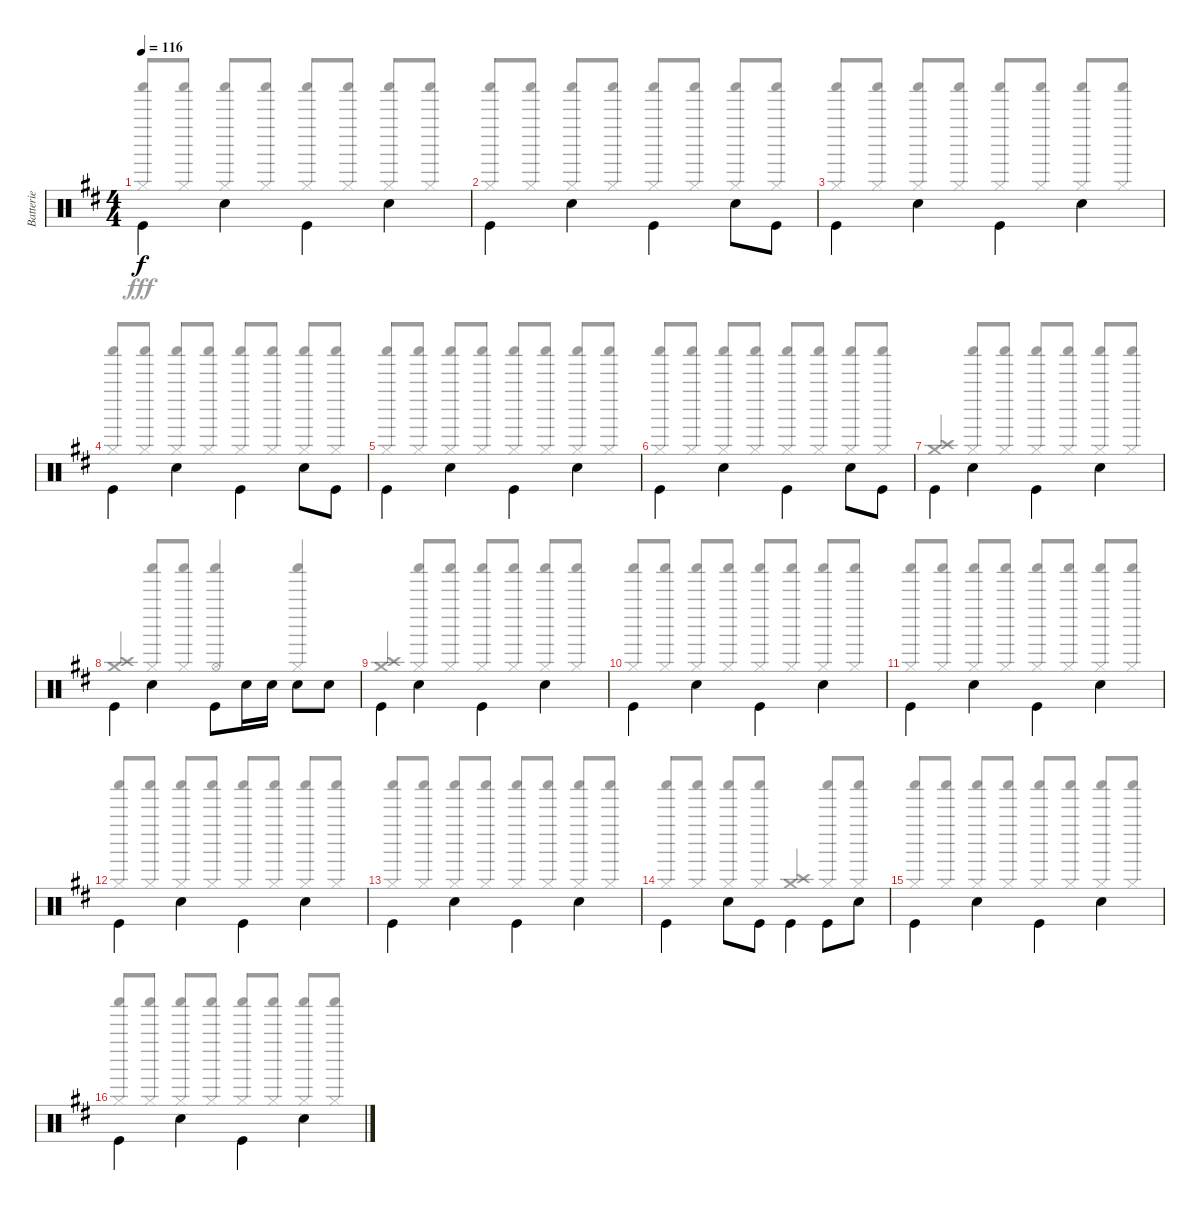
\track ("Batterie" "Batterie") {instrument percussion}
\staff {score}
\articulation defaults
\voice
\ts (4 4)
\tempo 116
\clef neutral
\ks d "Kick (hit)".4{dy f beam Down} "Snare (hit) 2".4{beam Down} "Kick (hit)".4{beam Down} "Snare (hit) 2".4{beam Down}
|
"Kick (hit)".4{beam Down} "Snare (hit) 2".4{beam Down} "Kick (hit)".4{beam Down} "Snare (hit) 2".8{beam Down} "Kick (hit)".8{beam Down} |
"Kick (hit)".4{beam Down} "Snare (hit) 2".4{beam Down} "Kick (hit)".4{beam Down} "Snare (hit) 2".4{beam Down} |
"Kick (hit)".4{beam Down} "Snare (hit) 2".4{beam Down} "Kick (hit)".4{beam Down} "Snare (hit) 2".8{beam Down} "Kick (hit)".8{beam Down} |
"Kick (hit)".4{beam Down} "Snare (hit) 2".4{beam Down} "Kick (hit)".4{beam Down} "Snare (hit) 2".4{beam Down} |
"Kick (hit)".4{beam Down} "Snare (hit) 2".4{beam Down} "Kick (hit)".4{beam Down} "Snare (hit) 2".8{beam Down} "Kick (hit)".8{beam Down} |
"Kick (hit)".4{beam Down} "Snare (hit) 2".4{beam Down} "Kick (hit)".4{beam Down} "Snare (hit) 2".4{beam Down} |
"Kick (hit)".4{beam Down} "Snare (hit) 2".4{beam Down} "Kick (hit)".8{beam Down} "Electric Snare (hit)".16{beam Down} "Electric Snare (hit)".16{beam Down} "Electric Snare (hit)".8{beam Down} "Snare (hit) 2".8{beam Down} |
"Kick (hit)".4{beam Down} "Snare (hit) 2".4{beam Down} "Kick (hit)".4{beam Down} "Snare (hit) 2".4{beam Down} |
"Kick (hit)".4{beam Down} "Snare (hit) 2".4{beam Down} "Kick (hit)".4{beam Down} "Snare (hit) 2".4{beam Down} |
"Kick (hit)".4{beam Down} "Snare (hit) 2".4{beam Down} "Kick (hit)".4{beam Down} "Snare (hit) 2".4{beam Down} |
"Kick (hit)".4{beam Down} "Snare (hit) 2".4{beam Down} "Kick (hit)".4{beam Down} "Snare (hit) 2".4{beam Down} |
"Kick (hit)".4{beam Down} "Snare (hit) 2".4{beam Down} "Kick (hit)".4{beam Down} "Snare (hit) 2".4{beam Down} |
"Kick (hit)".4{beam Down} "Snare (hit) 2".8{beam Down} "Kick (hit)".8{beam Down} "Kick (hit)".4{beam Down} "Kick (hit)".8{beam Down} "Snare (hit) 2".8{beam Down} |
"Kick (hit)".4{beam Down} "Snare (hit) 2".4{beam Down} "Kick (hit)".4{beam Down} "Snare (hit) 2".4{beam Down} |
"Kick (hit)".4{beam Down} "Snare (hit) 2".4{beam Down} "Kick (hit)".4{beam Down} "Snare (hit) 2".4{beam Down}
\voice
\clef neutral
\ottava regular
\simile none
\ks d
("Shaker (hit)" "Hi-Hat (closed)").8{dy fff beam Up} ("Shaker (hit)" "Hi-Hat (closed)").8{beam Up} ("Shaker (hit)" "Hi-Hat (closed)").8{beam Up} ("Shaker (hit)" "Hi-Hat (closed)").8{beam Up} ("Shaker (hit)" "Hi-Hat (closed)").8{beam Up} ("Shaker (hit)" "Hi-Hat (closed)").8{beam Up} ("Shaker (hit)" "Hi-Hat (closed)").8{beam Up} ("Shaker (hit)" "Hi-Hat (closed)").8{beam Up} |
("Shaker (hit)" "Hi-Hat (closed)").8{beam Up} ("Shaker (hit)" "Hi-Hat (closed)").8{beam Up} ("Shaker (hit)" "Hi-Hat (closed)").8{beam Up} ("Shaker (hit)" "Hi-Hat (closed)").8{beam Up} ("Shaker (hit)" "Hi-Hat (closed)").8{beam Up} ("Shaker (hit)" "Hi-Hat (closed)").8{beam Up} ("Shaker (hit)" "Hi-Hat (closed)").8{beam Up} ("Shaker (hit)" "Hi-Hat (closed)").8{beam Up} |
("Shaker (hit)" "Hi-Hat (closed)").8{beam Up} ("Shaker (hit)" "Hi-Hat (closed)").8{beam Up} ("Shaker (hit)" "Hi-Hat (closed)").8{beam Up} ("Shaker (hit)" "Hi-Hat (closed)").8{beam Up} ("Shaker (hit)" "Hi-Hat (closed)").8{beam Up} ("Shaker (hit)" "Hi-Hat (closed)").8{beam Up} ("Shaker (hit)" "Hi-Hat (closed)").8{beam Up} ("Shaker (hit)" "Hi-Hat (closed)").8{beam Up} |
("Shaker (hit)" "Hi-Hat (closed)").8{beam Up} ("Shaker (hit)" "Hi-Hat (closed)").8{beam Up} ("Shaker (hit)" "Hi-Hat (closed)").8{beam Up} ("Shaker (hit)" "Hi-Hat (closed)").8{beam Up} ("Shaker (hit)" "Hi-Hat (closed)").8{beam Up} ("Shaker (hit)" "Hi-Hat (closed)").8{beam Up} ("Shaker (hit)" "Hi-Hat (closed)").8{beam Up} ("Shaker (hit)" "Hi-Hat (closed)").8{beam Up} |
("Shaker (hit)" "Hi-Hat (closed)").8{beam Up} ("Shaker (hit)" "Hi-Hat (closed)").8{beam Up} ("Shaker (hit)" "Hi-Hat (closed)").8{beam Up} ("Shaker (hit)" "Hi-Hat (closed)").8{beam Up} ("Shaker (hit)" "Hi-Hat (closed)").8{beam Up} ("Shaker (hit)" "Hi-Hat (closed)").8{beam Up} ("Shaker (hit)" "Hi-Hat (closed)").8{beam Up} ("Shaker (hit)" "Hi-Hat (closed)").8{beam Up} |
("Shaker (hit)" "Hi-Hat (closed)").8{beam Up} ("Shaker (hit)" "Hi-Hat (closed)").8{beam Up} ("Shaker (hit)" "Hi-Hat (closed)").8{beam Up} ("Shaker (hit)" "Hi-Hat (closed)").8{beam Up} ("Shaker (hit)" "Hi-Hat (closed)").8{beam Up} ("Shaker (hit)" "Hi-Hat (closed)").8{beam Up} ("Shaker (hit)" "Hi-Hat (closed)").8{beam Up} ("Shaker (hit)" "Hi-Hat (closed)").8{beam Up} |
("Crash medium (hit)" "Crash high (hit)").4{beam Up} ("Shaker (hit)" "Hi-Hat (closed)").8{beam Up} ("Shaker (hit)" "Hi-Hat (closed)").8{beam Up} ("Shaker (hit)" "Hi-Hat (closed)").8{beam Up} ("Shaker (hit)" "Hi-Hat (closed)").8{beam Up} ("Shaker (hit)" "Hi-Hat (closed)").8{beam Up} ("Shaker (hit)" "Hi-Hat (closed)").8{beam Up} |
("Crash medium (hit)" "Crash high (hit)").4{beam Up} ("Shaker (hit)" "Hi-Hat (closed)").8{beam Up} ("Shaker (hit)" "Hi-Hat (closed)").8{beam Up} ("Shaker (hit)" "Hi-Hat (open)").4{beam Up} ("Shaker (hit)" "Hi-Hat (closed)").4{beam Up} |
("Crash medium (hit)" "Crash high (hit)").4{beam Up} ("Shaker (hit)" "Hi-Hat (closed)").8{beam Up} ("Shaker (hit)" "Hi-Hat (closed)").8{beam Up} ("Shaker (hit)" "Hi-Hat (closed)").8{beam Up} ("Shaker (hit)" "Hi-Hat (closed)").8{beam Up} ("Shaker (hit)" "Hi-Hat (closed)").8{beam Up} ("Shaker (hit)" "Hi-Hat (closed)").8{beam Up} |
("Shaker (hit)" "Hi-Hat (closed)").8{beam Up} ("Shaker (hit)" "Hi-Hat (closed)").8{beam Up} ("Shaker (hit)" "Hi-Hat (closed)").8{beam Up} ("Shaker (hit)" "Hi-Hat (closed)").8{beam Up} ("Shaker (hit)" "Hi-Hat (closed)").8{beam Up} ("Shaker (hit)" "Hi-Hat (closed)").8{beam Up} ("Shaker (hit)" "Hi-Hat (closed)").8{beam Up} ("Shaker (hit)" "Hi-Hat (closed)").8{beam Up} |
("Shaker (hit)" "Hi-Hat (closed)").8{beam Up} ("Shaker (hit)" "Hi-Hat (closed)").8{beam Up} ("Shaker (hit)" "Hi-Hat (closed)").8{beam Up} ("Shaker (hit)" "Hi-Hat (closed)").8{beam Up} ("Shaker (hit)" "Hi-Hat (closed)").8{beam Up} ("Shaker (hit)" "Hi-Hat (closed)").8{beam Up} ("Shaker (hit)" "Hi-Hat (closed)").8{beam Up} ("Shaker (hit)" "Hi-Hat (closed)").8{beam Up} |
("Shaker (hit)" "Hi-Hat (closed)").8{beam Up} ("Shaker (hit)" "Hi-Hat (closed)").8{beam Up} ("Shaker (hit)" "Hi-Hat (closed)").8{beam Up} ("Shaker (hit)" "Hi-Hat (closed)").8{beam Up} ("Shaker (hit)" "Hi-Hat (closed)").8{beam Up} ("Shaker (hit)" "Hi-Hat (closed)").8{beam Up} ("Shaker (hit)" "Hi-Hat (closed)").8{beam Up} ("Shaker (hit)" "Hi-Hat (closed)").8{beam Up} |
("Shaker (hit)" "Hi-Hat (closed)").8{beam Up} ("Shaker (hit)" "Hi-Hat (closed)").8{beam Up} ("Shaker (hit)" "Hi-Hat (closed)").8{beam Up} ("Shaker (hit)" "Hi-Hat (closed)").8{beam Up} ("Shaker (hit)" "Hi-Hat (closed)").8{beam Up} ("Shaker (hit)" "Hi-Hat (closed)").8{beam Up} ("Shaker (hit)" "Hi-Hat (closed)").8{beam Up} ("Shaker (hit)" "Hi-Hat (closed)").8{beam Up} |
("Shaker (hit)" "Hi-Hat (closed)").8{beam Up} ("Shaker (hit)" "Hi-Hat (closed)").8{beam Up} ("Shaker (hit)" "Hi-Hat (closed)").8{beam Up} ("Shaker (hit)" "Hi-Hat (closed)").8{beam Up} ("Crash medium (hit)" "Crash high (hit)").4{beam Up} ("Shaker (hit)" "Hi-Hat (closed)").8{beam Up} ("Shaker (hit)" "Hi-Hat (closed)").8{beam Up} |
("Shaker (hit)" "Hi-Hat (closed)").8{beam Up} ("Shaker (hit)" "Hi-Hat (closed)").8{beam Up} ("Shaker (hit)" "Hi-Hat (closed)").8{beam Up} ("Shaker (hit)" "Hi-Hat (closed)").8{beam Up} ("Shaker (hit)" "Hi-Hat (closed)").8{beam Up} ("Shaker (hit)" "Hi-Hat (closed)").8{beam Up} ("Shaker (hit)" "Hi-Hat (closed)").8{beam Up} ("Shaker (hit)" "Hi-Hat (closed)").8{beam Up} |
("Shaker (hit)" "Hi-Hat (closed)").8{beam Up} ("Shaker (hit)" "Hi-Hat (closed)").8{beam Up} ("Shaker (hit)" "Hi-Hat (closed)").8{beam Up} ("Shaker (hit)" "Hi-Hat (closed)").8{beam Up} ("Shaker (hit)" "Hi-Hat (closed)").8{beam Up} ("Shaker (hit)" "Hi-Hat (closed)").8{beam Up} ("Shaker (hit)" "Hi-Hat (closed)").8{beam Up} ("Shaker (hit)" "Hi-Hat (closed)").8{beam Up}
